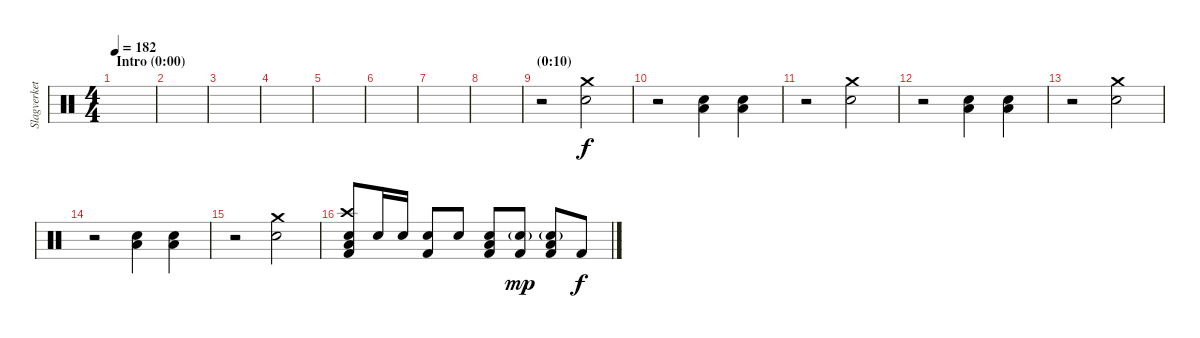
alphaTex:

\track ("Slagverket! =)" "Slagverket") {instrument percussion}
\staff {score}
\articulation defaults
\ts (4 4)
\section ("" "Intro (0:00)")
\tempo 182
\clef neutral
\ks c
|
|
|
|
|
|
|
|
\section ("" "(0:10)")
r.2 ("Crash medium (hit)" "Snare (hit) 2").2 |
r.2 ("Low Tom (hit)" "Snare (hit) 2").4 ("Low Tom (hit)" "Snare (hit) 2").4 |
r.2 ("Crash medium (hit)" "Snare (hit) 2").2 |
r.2 ("Low Tom (hit)" "Snare (hit) 2").4 ("Low Tom (hit)" "Snare (hit) 2").4 |
r.2 ("Crash medium (hit)" "Snare (hit) 2").2 |
r.2 ("Low Tom (hit)" "Snare (hit) 2").4 ("Low Tom (hit)" "Snare (hit) 2").4 |
r.2 ("Crash medium (hit)" "Snare (hit) 2").2 |
("Crash high (hit)" "Low Tom (hit)" "Snare (hit) 2" "Kick (hit) 2").8 "Snare (hit) 2".16 "Snare (hit) 2".16 ("Snare (hit) 2" "Kick (hit) 2").8 "Snare (hit) 2".8 ("Low Tom (hit)" "Snare (hit) 2" "Kick (hit) 2").8 ("Snare (hit) 2"{g} "Kick (hit) 2").8{dy mp} ("Low Tom (hit)" "Snare (hit) 2"{g} "Kick (hit) 2").8 "Kick (hit) 2".8{dy f}
